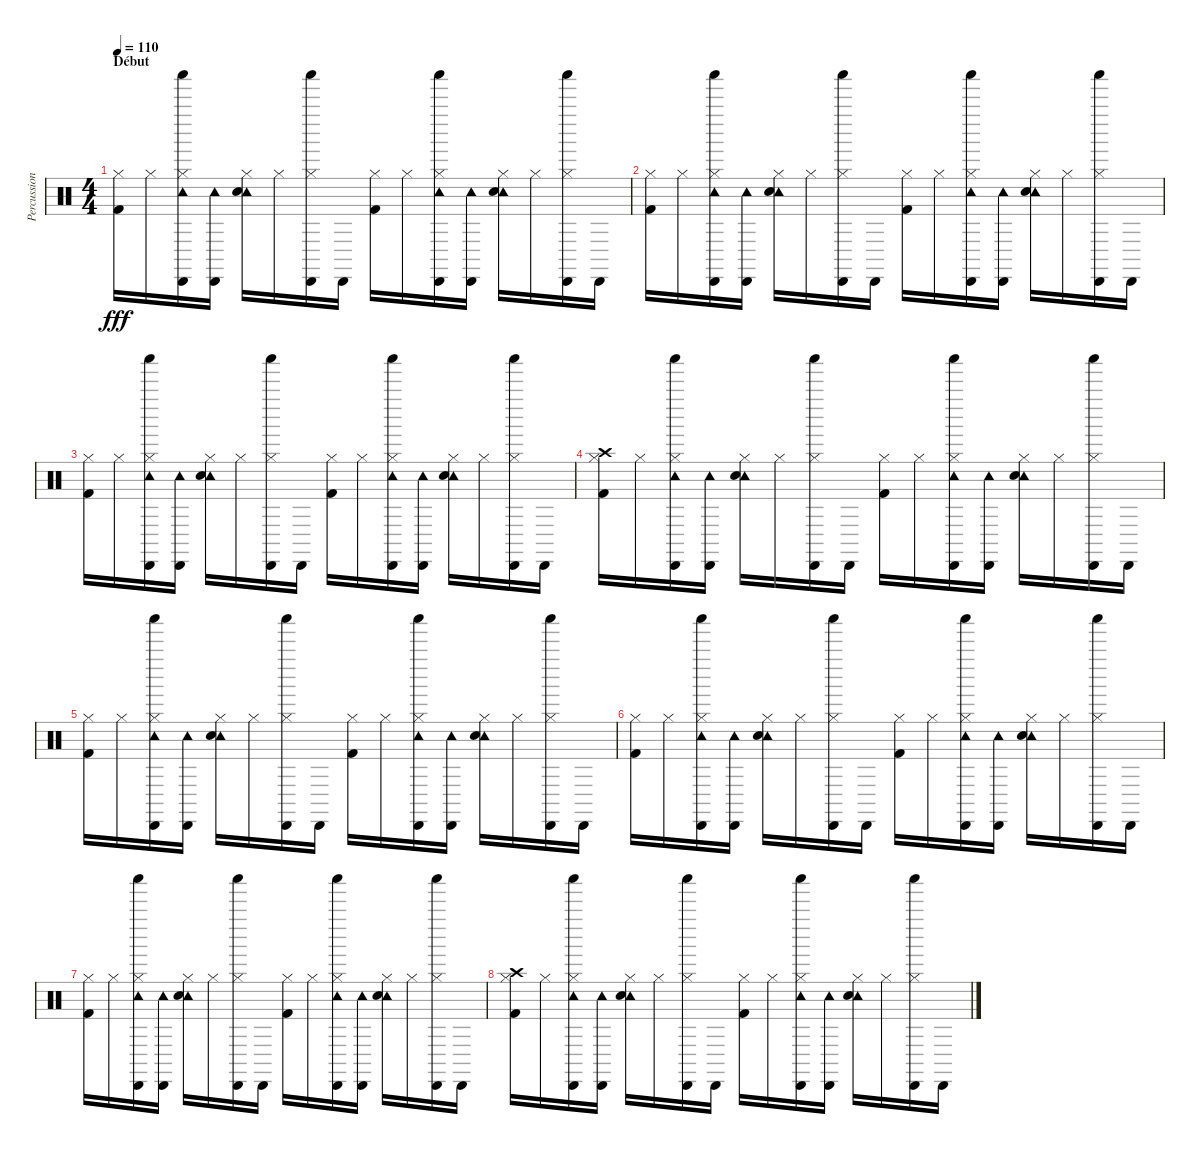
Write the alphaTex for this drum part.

\track ("Percussions" "Percussion") {instrument percussion}
\staff {score}
\articulation defaults
\ts (4 4)
\section ("" "Début")
\tempo 110
\clef neutral
\ks c
("Hi-Hat (closed)" "Kick (hit) 2").16{dy fff} "Hi-Hat (closed)".16 ("Hi-Hat (closed)" "Tambourine (hit)" "Cabasa (hit)" "Shaker (hit)").16 ("Tambourine (hit)" "Cabasa (hit)").16 ("Hi-Hat (closed)" "Tambourine (hit)" "Electric Snare (hit)").16 "Hi-Hat (closed)".16 ("Hi-Hat (closed)" "Cabasa (hit)" "Shaker (hit)").16 "Cabasa (hit)".16 ("Hi-Hat (closed)" "Kick (hit) 2").16 "Hi-Hat (closed)".16 ("Hi-Hat (closed)" "Tambourine (hit)" "Cabasa (hit)" "Shaker (hit)").16 ("Tambourine (hit)" "Cabasa (hit)").16 ("Hi-Hat (closed)" "Tambourine (hit)" "Electric Snare (hit)").16 "Hi-Hat (closed)".16 ("Hi-Hat (closed)" "Cabasa (hit)" "Shaker (hit)").16 "Cabasa (hit)".16 |
("Hi-Hat (closed)" "Kick (hit) 2").16 "Hi-Hat (closed)".16 ("Hi-Hat (closed)" "Tambourine (hit)" "Cabasa (hit)" "Shaker (hit)").16 ("Tambourine (hit)" "Cabasa (hit)").16 ("Hi-Hat (closed)" "Tambourine (hit)" "Electric Snare (hit)").16 "Hi-Hat (closed)".16 ("Hi-Hat (closed)" "Cabasa (hit)" "Shaker (hit)").16 "Cabasa (hit)".16 ("Hi-Hat (closed)" "Kick (hit) 2").16 "Hi-Hat (closed)".16 ("Hi-Hat (closed)" "Tambourine (hit)" "Cabasa (hit)" "Shaker (hit)").16 ("Tambourine (hit)" "Cabasa (hit)").16 ("Hi-Hat (closed)" "Tambourine (hit)" "Electric Snare (hit)").16 "Hi-Hat (closed)".16 ("Hi-Hat (closed)" "Cabasa (hit)" "Shaker (hit)").16 "Cabasa (hit)".16 |
("Hi-Hat (closed)" "Kick (hit) 2").16 "Hi-Hat (closed)".16 ("Hi-Hat (closed)" "Tambourine (hit)" "Cabasa (hit)" "Shaker (hit)").16 ("Tambourine (hit)" "Cabasa (hit)").16 ("Hi-Hat (closed)" "Tambourine (hit)" "Electric Snare (hit)").16 "Hi-Hat (closed)".16 ("Hi-Hat (closed)" "Cabasa (hit)" "Shaker (hit)").16 "Cabasa (hit)".16 ("Hi-Hat (closed)" "Kick (hit) 2").16 "Hi-Hat (closed)".16 ("Hi-Hat (closed)" "Tambourine (hit)" "Cabasa (hit)" "Shaker (hit)").16 ("Tambourine (hit)" "Cabasa (hit)").16 ("Hi-Hat (closed)" "Tambourine (hit)" "Electric Snare (hit)").16 "Hi-Hat (closed)".16 ("Hi-Hat (closed)" "Cabasa (hit)" "Shaker (hit)").16 "Cabasa (hit)".16 |
("Hi-Hat (closed)" "Crash high (hit)" "Kick (hit) 2").16 "Hi-Hat (closed)".16 ("Hi-Hat (closed)" "Tambourine (hit)" "Cabasa (hit)" "Shaker (hit)").16 ("Tambourine (hit)" "Cabasa (hit)").16 ("Hi-Hat (closed)" "Tambourine (hit)" "Electric Snare (hit)").16 "Hi-Hat (closed)".16 ("Hi-Hat (closed)" "Cabasa (hit)" "Shaker (hit)").16 "Cabasa (hit)".16 ("Hi-Hat (closed)" "Kick (hit) 2").16 "Hi-Hat (closed)".16 ("Hi-Hat (closed)" "Tambourine (hit)" "Cabasa (hit)" "Shaker (hit)").16 ("Tambourine (hit)" "Cabasa (hit)").16 ("Hi-Hat (closed)" "Tambourine (hit)" "Electric Snare (hit)").16 "Hi-Hat (closed)".16 ("Hi-Hat (closed)" "Cabasa (hit)" "Shaker (hit)").16 "Cabasa (hit)".16 |
("Hi-Hat (closed)" "Kick (hit) 2").16 "Hi-Hat (closed)".16 ("Hi-Hat (closed)" "Tambourine (hit)" "Cabasa (hit)" "Shaker (hit)").16 ("Tambourine (hit)" "Cabasa (hit)").16 ("Hi-Hat (closed)" "Tambourine (hit)" "Electric Snare (hit)").16 "Hi-Hat (closed)".16 ("Hi-Hat (closed)" "Cabasa (hit)" "Shaker (hit)").16 "Cabasa (hit)".16 ("Hi-Hat (closed)" "Kick (hit) 2").16 "Hi-Hat (closed)".16 ("Hi-Hat (closed)" "Tambourine (hit)" "Cabasa (hit)" "Shaker (hit)").16 ("Tambourine (hit)" "Cabasa (hit)").16 ("Hi-Hat (closed)" "Tambourine (hit)" "Electric Snare (hit)").16 "Hi-Hat (closed)".16 ("Hi-Hat (closed)" "Cabasa (hit)" "Shaker (hit)").16 "Cabasa (hit)".16 |
("Hi-Hat (closed)" "Kick (hit) 2").16 "Hi-Hat (closed)".16 ("Hi-Hat (closed)" "Tambourine (hit)" "Cabasa (hit)" "Shaker (hit)").16 ("Tambourine (hit)" "Cabasa (hit)").16 ("Hi-Hat (closed)" "Tambourine (hit)" "Electric Snare (hit)").16 "Hi-Hat (closed)".16 ("Hi-Hat (closed)" "Cabasa (hit)" "Shaker (hit)").16 "Cabasa (hit)".16 ("Hi-Hat (closed)" "Kick (hit) 2").16 "Hi-Hat (closed)".16 ("Hi-Hat (closed)" "Tambourine (hit)" "Cabasa (hit)" "Shaker (hit)").16 ("Tambourine (hit)" "Cabasa (hit)").16 ("Hi-Hat (closed)" "Tambourine (hit)" "Electric Snare (hit)").16 "Hi-Hat (closed)".16 ("Hi-Hat (closed)" "Cabasa (hit)" "Shaker (hit)").16 "Cabasa (hit)".16 |
("Hi-Hat (closed)" "Kick (hit) 2").16 "Hi-Hat (closed)".16 ("Hi-Hat (closed)" "Tambourine (hit)" "Cabasa (hit)" "Shaker (hit)").16 ("Tambourine (hit)" "Cabasa (hit)").16 ("Hi-Hat (closed)" "Tambourine (hit)" "Electric Snare (hit)").16 "Hi-Hat (closed)".16 ("Hi-Hat (closed)" "Cabasa (hit)" "Shaker (hit)").16 "Cabasa (hit)".16 ("Hi-Hat (closed)" "Kick (hit) 2").16 "Hi-Hat (closed)".16 ("Hi-Hat (closed)" "Tambourine (hit)" "Cabasa (hit)" "Shaker (hit)").16 ("Tambourine (hit)" "Cabasa (hit)").16 ("Hi-Hat (closed)" "Tambourine (hit)" "Electric Snare (hit)").16 "Hi-Hat (closed)".16 ("Hi-Hat (closed)" "Cabasa (hit)" "Shaker (hit)").16 "Cabasa (hit)".16 |
("Hi-Hat (closed)" "Crash high (hit)" "Kick (hit) 2").16 "Hi-Hat (closed)".16 ("Hi-Hat (closed)" "Tambourine (hit)" "Cabasa (hit)" "Shaker (hit)").16 ("Tambourine (hit)" "Cabasa (hit)").16 ("Hi-Hat (closed)" "Tambourine (hit)" "Electric Snare (hit)").16 "Hi-Hat (closed)".16 ("Hi-Hat (closed)" "Cabasa (hit)" "Shaker (hit)").16 "Cabasa (hit)".16 ("Hi-Hat (closed)" "Kick (hit) 2").16 "Hi-Hat (closed)".16 ("Hi-Hat (closed)" "Tambourine (hit)" "Cabasa (hit)" "Shaker (hit)").16 ("Tambourine (hit)" "Cabasa (hit)").16 ("Hi-Hat (closed)" "Tambourine (hit)" "Electric Snare (hit)").16 "Hi-Hat (closed)".16 ("Hi-Hat (closed)" "Cabasa (hit)" "Shaker (hit)").16 "Cabasa (hit)".16
